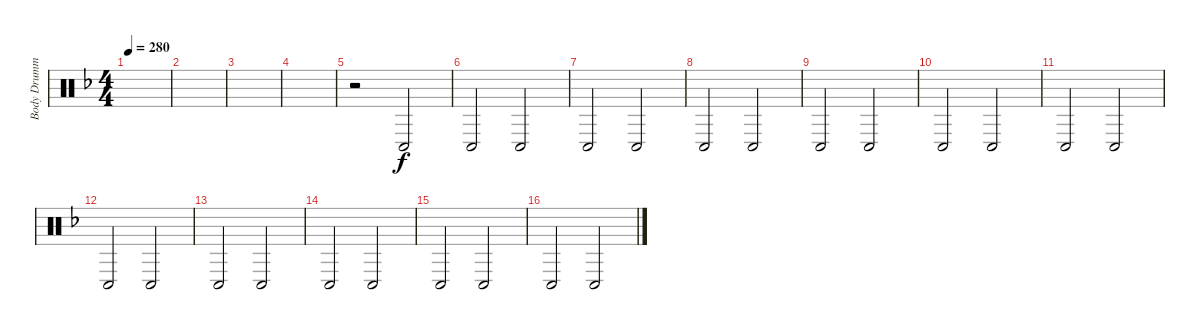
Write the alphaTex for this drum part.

\track ("Body Drumming" "Body Drumm") {instrument percussion}
\staff {score}
\articulation defaults
\ts (4 4)
\tempo 280
\clef neutral
\ks f
|
|
|
|
r.2 "Conga low (hit)".2 |
"Conga low (hit)".2 "Conga low (hit)".2 |
"Conga low (hit)".2 "Conga low (hit)".2 |
"Conga low (hit)".2 "Conga low (hit)".2 |
"Conga low (hit)".2 "Conga low (hit)".2 |
"Conga low (hit)".2 "Conga low (hit)".2 |
"Conga low (hit)".2 "Conga low (hit)".2 |
"Conga low (hit)".2 "Conga low (hit)".2 |
"Conga low (hit)".2 "Conga low (hit)".2 |
"Conga low (hit)".2 "Conga low (hit)".2 |
"Conga low (hit)".2 "Conga low (hit)".2 |
"Conga low (hit)".2 "Conga low (hit)".2
